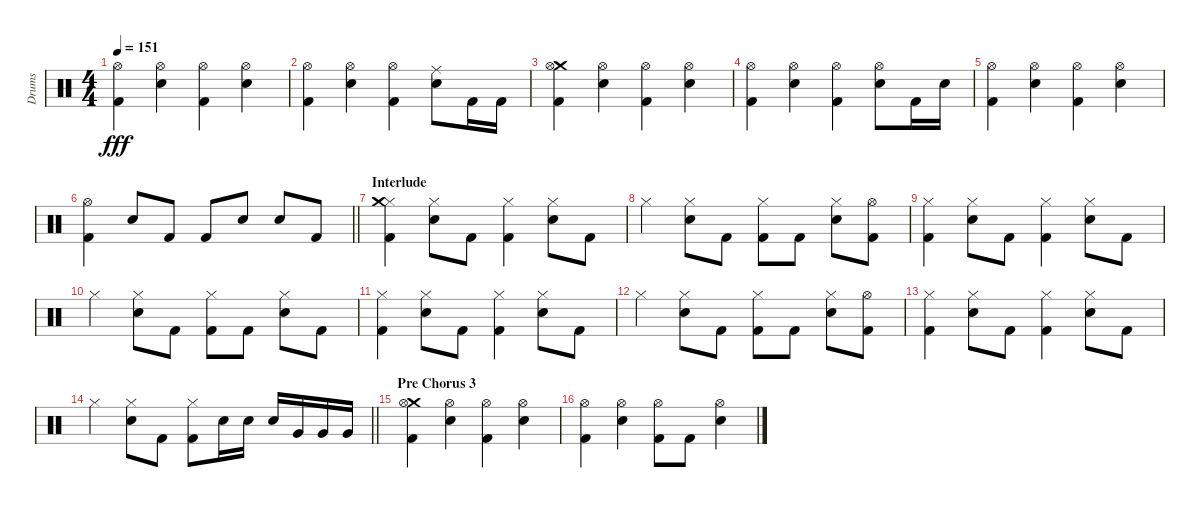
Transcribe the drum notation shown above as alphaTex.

\track ("Drums" "Drums") {instrument percussion}
\staff {score}
\articulation defaults
\ts (4 4)
\tempo 151
\clef neutral
\ks c
("Hi-Hat (open)" "Kick (hit) 2").4{dy fff} ("Hi-Hat (open)" "Electric Snare (hit)").4 ("Hi-Hat (open)" "Kick (hit) 2").4 ("Hi-Hat (open)" "Electric Snare (hit)").4 |
("Hi-Hat (open)" "Kick (hit) 2").4 ("Hi-Hat (open)" "Electric Snare (hit)").4 ("Hi-Hat (open)" "Kick (hit) 2").4 ("Ride (middle)" "Electric Snare (hit)").8 "Kick (hit) 2".16 "Kick (hit) 2".16 |
("Crash medium (hit)" "Hi-Hat (open)" "Kick (hit) 2").4 ("Hi-Hat (open)" "Electric Snare (hit)").4 ("Hi-Hat (open)" "Kick (hit) 2").4 ("Hi-Hat (open)" "Electric Snare (hit)").4 |
("Hi-Hat (open)" "Kick (hit) 2").4 ("Hi-Hat (open)" "Electric Snare (hit)").4 ("Hi-Hat (open)" "Kick (hit) 2").4 ("Hi-Hat (open)" "Electric Snare (hit)").8 "Kick (hit) 2".16 "Electric Snare (hit)".16 |
("Hi-Hat (open)" "Kick (hit) 2").4 ("Hi-Hat (open)" "Electric Snare (hit)").4 ("Hi-Hat (open)" "Kick (hit) 2").4 ("Hi-Hat (open)" "Electric Snare (hit)").4 |
\barLineRight lightlight
("Hi-Hat (open)" "Kick (hit) 2").4 "Electric Snare (hit)".8 "Kick (hit) 2".8 "Kick (hit) 2".8 "Electric Snare (hit)".8 "Electric Snare (hit)".8 "Kick (hit) 2".8 |
\section ("" "Interlude")
("Hi-Hat (closed)" "Crash medium (hit)" "Kick (hit) 2").4 ("Hi-Hat (closed)" "Electric Snare (hit)").8 "Kick (hit) 2".8 ("Hi-Hat (closed)" "Kick (hit) 2").4 ("Hi-Hat (closed)" "Electric Snare (hit)").8 "Kick (hit) 2".8 |
"Hi-Hat (closed)".4 ("Hi-Hat (closed)" "Electric Snare (hit)").8 "Kick (hit) 2".8 ("Hi-Hat (closed)" "Kick (hit) 2").8 "Kick (hit) 2".8 ("Hi-Hat (closed)" "Electric Snare (hit)").8 ("Hi-Hat (open)" "Kick (hit) 2").8 |
("Hi-Hat (closed)" "Kick (hit) 2").4 ("Hi-Hat (closed)" "Electric Snare (hit)").8 "Kick (hit) 2".8 ("Hi-Hat (closed)" "Kick (hit) 2").4 ("Hi-Hat (closed)" "Electric Snare (hit)").8 "Kick (hit) 2".8 |
"Hi-Hat (closed)".4 ("Hi-Hat (closed)" "Electric Snare (hit)").8 "Kick (hit) 2".8 ("Hi-Hat (closed)" "Kick (hit) 2").8 "Kick (hit) 2".8 ("Hi-Hat (closed)" "Electric Snare (hit)").8 "Kick (hit) 2".8 |
("Hi-Hat (closed)" "Kick (hit) 2").4 ("Hi-Hat (closed)" "Electric Snare (hit)").8 "Kick (hit) 2".8 ("Hi-Hat (closed)" "Kick (hit) 2").4 ("Hi-Hat (closed)" "Electric Snare (hit)").8 "Kick (hit) 2".8 |
"Hi-Hat (closed)".4 ("Hi-Hat (closed)" "Electric Snare (hit)").8 "Kick (hit) 2".8 ("Hi-Hat (closed)" "Kick (hit) 2").8 "Kick (hit) 2".8 ("Hi-Hat (closed)" "Electric Snare (hit)").8 ("Hi-Hat (open)" "Kick (hit) 2").8 |
("Hi-Hat (closed)" "Kick (hit) 2").4 ("Hi-Hat (closed)" "Electric Snare (hit)").8 "Kick (hit) 2".8 ("Hi-Hat (closed)" "Kick (hit) 2").4 ("Hi-Hat (closed)" "Electric Snare (hit)").8 "Kick (hit) 2".8 |
\barLineRight lightlight "Hi-Hat (closed)".4
("Hi-Hat (closed)" "Electric Snare (hit)").8 "Kick (hit) 2".8 ("Hi-Hat (closed)" "Kick (hit) 2").8 "Electric Snare (hit)".16 "Electric Snare (hit)".16 "Electric Snare (hit)".16 "Very Low Tom (hit)".16 "Very Low Tom (hit)".16 "Very Low Tom (hit)".16 |
\section ("" "Pre Chorus 3")
("Crash medium (hit)" "Hi-Hat (open)" "Kick (hit) 2").4 ("Hi-Hat (open)" "Electric Snare (hit)").4 ("Hi-Hat (open)" "Kick (hit) 2").4 ("Hi-Hat (open)" "Electric Snare (hit)").4 |
("Hi-Hat (open)" "Kick (hit) 2").4 ("Hi-Hat (open)" "Electric Snare (hit)").4 ("Hi-Hat (open)" "Kick (hit) 2").8 "Kick (hit) 2".8 ("Hi-Hat (open)" "Electric Snare (hit)").4
